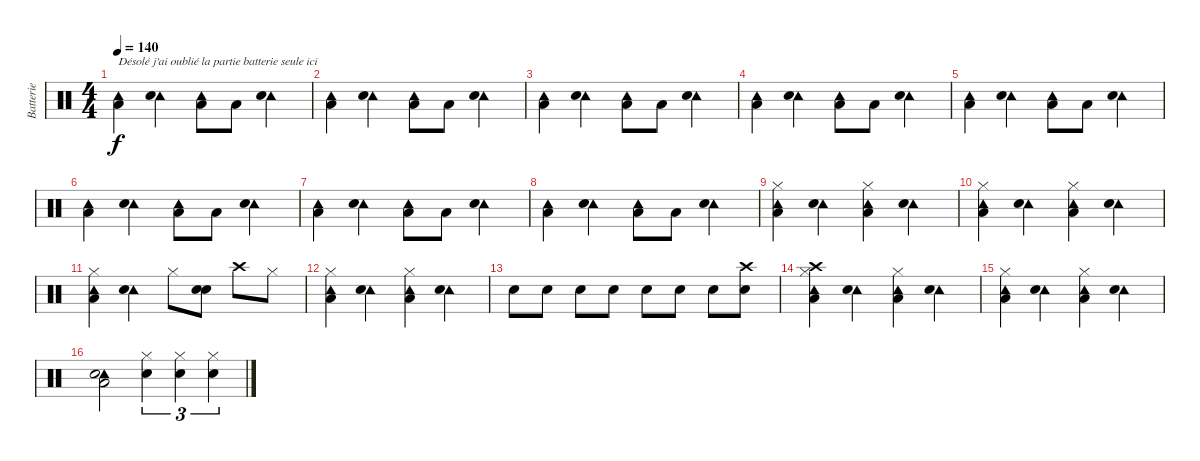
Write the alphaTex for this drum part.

\track ("Batterie" "Batterie") {instrument percussion}
\staff {score}
\articulation defaults
\ts (4 4)
\tempo 140
\clef neutral
\ks c
("Tambourine (hit)" "Low Floor Tom (hit)").4{txt "Désolé j'ai oublié la partie batterie seule ici" dy f} ("Tambourine (hit)" "Electric Snare (hit)").4 ("Tambourine (hit)" "Low Floor Tom (hit)").8 "Low Floor Tom (hit)".8 ("Tambourine (hit)" "Electric Snare (hit)").4 |
("Tambourine (hit)" "Low Floor Tom (hit)").4 ("Tambourine (hit)" "Electric Snare (hit)").4 ("Tambourine (hit)" "Low Floor Tom (hit)").8 "Low Floor Tom (hit)".8 ("Tambourine (hit)" "Electric Snare (hit)").4 |
("Tambourine (hit)" "Low Floor Tom (hit)").4 ("Tambourine (hit)" "Electric Snare (hit)").4 ("Tambourine (hit)" "Low Floor Tom (hit)").8 "Low Floor Tom (hit)".8 ("Tambourine (hit)" "Electric Snare (hit)").4 |
("Tambourine (hit)" "Low Floor Tom (hit)").4 ("Tambourine (hit)" "Electric Snare (hit)").4 ("Tambourine (hit)" "Low Floor Tom (hit)").8 "Low Floor Tom (hit)".8 ("Tambourine (hit)" "Electric Snare (hit)").4 |
("Tambourine (hit)" "Low Floor Tom (hit)").4 ("Tambourine (hit)" "Electric Snare (hit)").4 ("Tambourine (hit)" "Low Floor Tom (hit)").8 "Low Floor Tom (hit)".8 ("Tambourine (hit)" "Electric Snare (hit)").4 |
("Tambourine (hit)" "Low Floor Tom (hit)").4 ("Tambourine (hit)" "Electric Snare (hit)").4 ("Tambourine (hit)" "Low Floor Tom (hit)").8 "Low Floor Tom (hit)".8 ("Tambourine (hit)" "Electric Snare (hit)").4 |
("Tambourine (hit)" "Low Floor Tom (hit)").4 ("Tambourine (hit)" "Electric Snare (hit)").4 ("Tambourine (hit)" "Low Floor Tom (hit)").8 "Low Floor Tom (hit)".8 ("Tambourine (hit)" "Electric Snare (hit)").4 |
("Tambourine (hit)" "Low Floor Tom (hit)").4 ("Tambourine (hit)" "Electric Snare (hit)").4 ("Tambourine (hit)" "Low Floor Tom (hit)").8 "Low Floor Tom (hit)".8 ("Tambourine (hit)" "Electric Snare (hit)").4 |
("Tambourine (hit)" "Hi-Hat (closed)" "Low Floor Tom (hit)").4 ("Tambourine (hit)" "Electric Snare (hit)").4 ("Tambourine (hit)" "Hi-Hat (closed)" "Low Floor Tom (hit)").4 ("Tambourine (hit)" "Electric Snare (hit)").4 |
("Tambourine (hit)" "Hi-Hat (closed)" "Low Floor Tom (hit)").4 ("Tambourine (hit)" "Electric Snare (hit)").4 ("Tambourine (hit)" "Hi-Hat (closed)" "Low Floor Tom (hit)").4 ("Tambourine (hit)" "Electric Snare (hit)").4 |
("Tambourine (hit)" "Hi-Hat (closed)" "Low Floor Tom (hit)").4 ("Tambourine (hit)" "Electric Snare (hit)").4 "Hi-Hat (closed)".8 ("Snare (hit) 2" "Electric Snare (hit)").8 "Crash high (hit)".8 "Hi-Hat (closed)".8 |
("Tambourine (hit)" "Hi-Hat (closed)" "Low Floor Tom (hit)").4 ("Tambourine (hit)" "Electric Snare (hit)").4 ("Tambourine (hit)" "Hi-Hat (closed)" "Low Floor Tom (hit)").4 ("Tambourine (hit)" "Electric Snare (hit)").4 |
"Snare (hit) 2".8 "Snare (hit) 2".8 "Snare (hit) 2".8 "Snare (hit) 2".8 "Snare (hit) 2".8 "Snare (hit) 2".8 "Snare (hit) 2".8 ("Crash high (hit)" "Snare (hit) 2").8 |
("Tambourine (hit)" "Hi-Hat (closed)" "Crash high (hit)" "Low Floor Tom (hit)").4 ("Tambourine (hit)" "Electric Snare (hit)").4 ("Tambourine (hit)" "Hi-Hat (closed)" "Low Floor Tom (hit)").4 ("Tambourine (hit)" "Electric Snare (hit)").4 |
("Tambourine (hit)" "Hi-Hat (closed)" "Low Floor Tom (hit)").4 ("Tambourine (hit)" "Electric Snare (hit)").4 ("Tambourine (hit)" "Hi-Hat (closed)" "Low Floor Tom (hit)").4 ("Tambourine (hit)" "Electric Snare (hit)").4 |
("Tambourine (hit)" "Electric Snare (hit)" "Low Floor Tom (hit)").2 ("Hi-Hat (closed)" "Snare (hit) 2").4{tu (3 2)} ("Hi-Hat (closed)" "Snare (hit) 2").4{tu (3 2)} ("Hi-Hat (closed)" "Snare (hit) 2").4{tu (3 2)}
